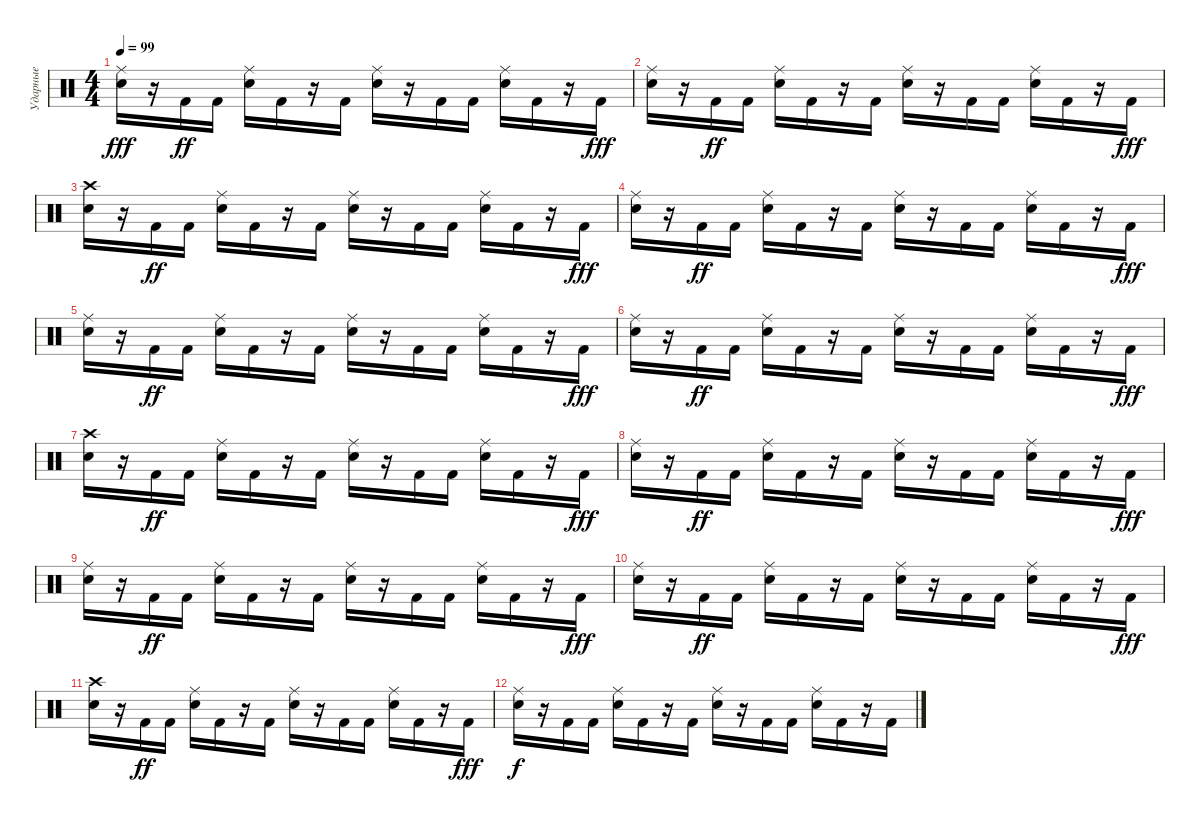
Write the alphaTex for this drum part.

\track ("Ударные" "Ударные") {instrument percussion}
\staff {score}
\articulation defaults
\ts (4 4)
\tempo 99
\clef neutral
\ks c
("Ride (middle)" "Snare (hit) 2").16{dy fff} r.16 "Kick (hit) 2".16{dy ff} "Kick (hit) 2".16 ("Ride (middle)" "Snare (hit) 2").16 "Kick (hit) 2".16 r.16 "Kick (hit) 2".16 ("Ride (middle)" "Snare (hit) 2").16 r.16 "Kick (hit) 2".16 "Kick (hit) 2".16 ("Ride (middle)" "Snare (hit) 2").16 "Kick (hit) 2".16 r.16 "Kick (hit) 2".16{dy fff} |
("Ride (middle)" "Snare (hit) 2").16 r.16 "Kick (hit) 2".16{dy ff} "Kick (hit) 2".16 ("Ride (middle)" "Snare (hit) 2").16 "Kick (hit) 2".16 r.16 "Kick (hit) 2".16 ("Ride (middle)" "Snare (hit) 2").16 r.16 "Kick (hit) 2".16 "Kick (hit) 2".16 ("Ride (middle)" "Snare (hit) 2").16 "Kick (hit) 2".16 r.16 "Kick (hit) 2".16{dy fff} |
("Crash high (hit)" "Snare (hit) 2").16 r.16 "Kick (hit) 2".16{dy ff} "Kick (hit) 2".16 ("Ride (middle)" "Snare (hit) 2").16 "Kick (hit) 2".16 r.16 "Kick (hit) 2".16 ("Ride (middle)" "Snare (hit) 2").16 r.16 "Kick (hit) 2".16 "Kick (hit) 2".16 ("Ride (middle)" "Snare (hit) 2").16 "Kick (hit) 2".16 r.16 "Kick (hit) 2".16{dy fff} |
("Ride (middle)" "Snare (hit) 2").16 r.16 "Kick (hit) 2".16{dy ff} "Kick (hit) 2".16 ("Ride (middle)" "Snare (hit) 2").16 "Kick (hit) 2".16 r.16 "Kick (hit) 2".16 ("Ride (middle)" "Snare (hit) 2").16 r.16 "Kick (hit) 2".16 "Kick (hit) 2".16 ("Ride (middle)" "Snare (hit) 2").16 "Kick (hit) 2".16 r.16 "Kick (hit) 2".16{dy fff} |
("Ride (middle)" "Snare (hit) 2").16 r.16 "Kick (hit) 2".16{dy ff} "Kick (hit) 2".16 ("Ride (middle)" "Snare (hit) 2").16 "Kick (hit) 2".16 r.16 "Kick (hit) 2".16 ("Ride (middle)" "Snare (hit) 2").16 r.16 "Kick (hit) 2".16 "Kick (hit) 2".16 ("Ride (middle)" "Snare (hit) 2").16 "Kick (hit) 2".16 r.16 "Kick (hit) 2".16{dy fff} |
("Ride (middle)" "Snare (hit) 2").16 r.16 "Kick (hit) 2".16{dy ff} "Kick (hit) 2".16 ("Ride (middle)" "Snare (hit) 2").16 "Kick (hit) 2".16 r.16 "Kick (hit) 2".16 ("Ride (middle)" "Snare (hit) 2").16 r.16 "Kick (hit) 2".16 "Kick (hit) 2".16 ("Ride (middle)" "Snare (hit) 2").16 "Kick (hit) 2".16 r.16 "Kick (hit) 2".16{dy fff volume 0} |
("Crash high (hit)" "Snare (hit) 2").16{volume 12} r.16 "Kick (hit) 2".16{dy ff} "Kick (hit) 2".16 ("Ride (middle)" "Snare (hit) 2").16 "Kick (hit) 2".16 r.16 "Kick (hit) 2".16 ("Ride (middle)" "Snare (hit) 2").16 r.16 "Kick (hit) 2".16 "Kick (hit) 2".16 ("Ride (middle)" "Snare (hit) 2").16 "Kick (hit) 2".16 r.16 "Kick (hit) 2".16{dy fff} |
("Ride (middle)" "Snare (hit) 2").16 r.16 "Kick (hit) 2".16{dy ff} "Kick (hit) 2".16 ("Ride (middle)" "Snare (hit) 2").16 "Kick (hit) 2".16 r.16 "Kick (hit) 2".16 ("Ride (middle)" "Snare (hit) 2").16 r.16 "Kick (hit) 2".16 "Kick (hit) 2".16 ("Ride (middle)" "Snare (hit) 2").16 "Kick (hit) 2".16 r.16 "Kick (hit) 2".16{dy fff} |
("Ride (middle)" "Snare (hit) 2").16 r.16 "Kick (hit) 2".16{dy ff} "Kick (hit) 2".16 ("Ride (middle)" "Snare (hit) 2").16 "Kick (hit) 2".16 r.16 "Kick (hit) 2".16 ("Ride (middle)" "Snare (hit) 2").16 r.16 "Kick (hit) 2".16 "Kick (hit) 2".16 ("Ride (middle)" "Snare (hit) 2").16 "Kick (hit) 2".16 r.16 "Kick (hit) 2".16{dy fff} |
("Ride (middle)" "Snare (hit) 2").16 r.16 "Kick (hit) 2".16{dy ff} "Kick (hit) 2".16 ("Ride (middle)" "Snare (hit) 2").16 "Kick (hit) 2".16 r.16 "Kick (hit) 2".16 ("Ride (middle)" "Snare (hit) 2").16 r.16 "Kick (hit) 2".16 "Kick (hit) 2".16 ("Ride (middle)" "Snare (hit) 2").16 "Kick (hit) 2".16 r.16 "Kick (hit) 2".16{dy fff} |
("Crash high (hit)" "Snare (hit) 2").16{volume 0} r.16 "Kick (hit) 2".16{dy ff} "Kick (hit) 2".16 ("Ride (middle)" "Snare (hit) 2").16 "Kick (hit) 2".16 r.16 "Kick (hit) 2".16 ("Ride (middle)" "Snare (hit) 2").16 r.16 "Kick (hit) 2".16 "Kick (hit) 2".16 ("Ride (middle)" "Snare (hit) 2").16 "Kick (hit) 2".16 r.16 "Kick (hit) 2".16{dy fff} |
("Ride (middle)" "Snare (hit) 2").16{dy f} r.16 "Kick (hit) 2".16 "Kick (hit) 2".16 ("Ride (middle)" "Snare (hit) 2").16 "Kick (hit) 2".16 r.16 "Kick (hit) 2".16 ("Ride (middle)" "Snare (hit) 2").16 r.16 "Kick (hit) 2".16 "Kick (hit) 2".16 ("Ride (middle)" "Snare (hit) 2").16 "Kick (hit) 2".16 r.16 "Kick (hit) 2".16
